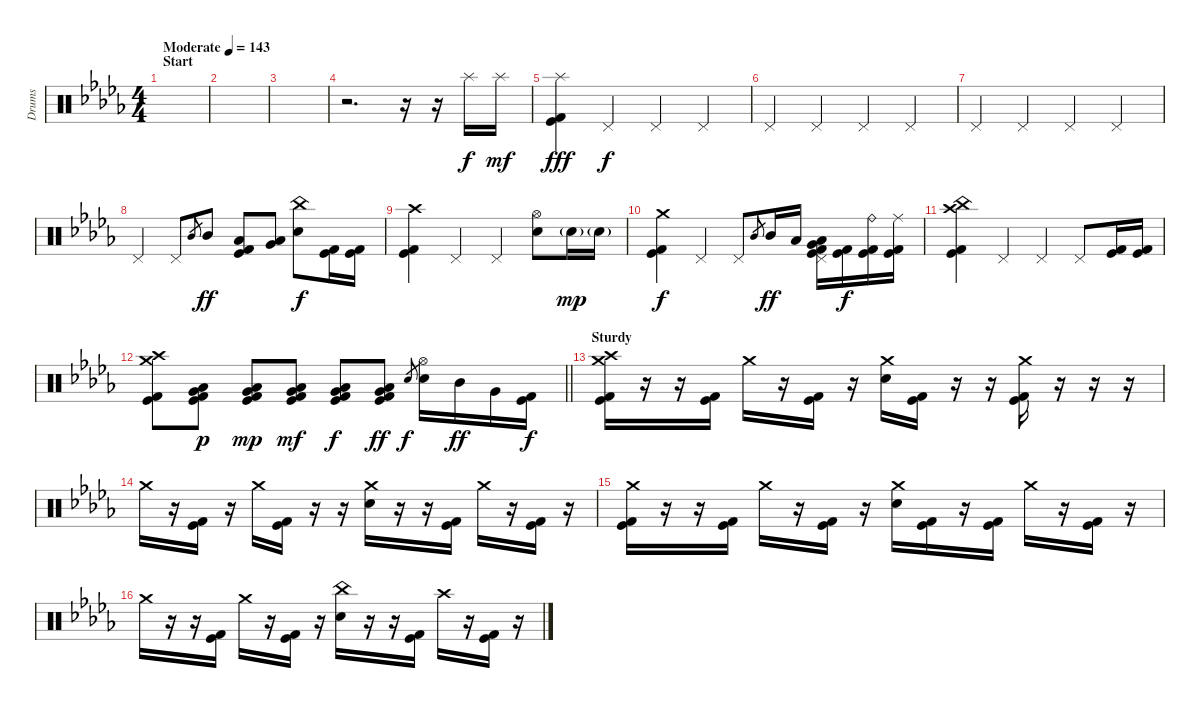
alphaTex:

\track ("Drums" "Drums") {instrument percussion}
\staff {score}
\articulation defaults
\ts (4 4)
\section ("" "Start")
\tempo (143 "Moderate")
\clef neutral
\ks db
|
|
|
r.2{d} r.16 r.16 "Splash (hit)".16 "Splash (hit)".16{dy mf} |
("Splash (hit)" "Kick (hit)" "Kick (hit) 2").4{dy fff} "Pedal Hi-Hat (hit)".4{dy f} "Pedal Hi-Hat (hit)".4 "Pedal Hi-Hat (hit)".4 |
"Pedal Hi-Hat (hit)".4 "Pedal Hi-Hat (hit)".4 "Pedal Hi-Hat (hit)".4 "Pedal Hi-Hat (hit)".4 |
"Pedal Hi-Hat (hit)".4 "Pedal Hi-Hat (hit)".4 "Pedal Hi-Hat (hit)".4 "Pedal Hi-Hat (hit)".4 |
"Pedal Hi-Hat (hit)".4 "Pedal Hi-Hat (hit)".8 "Mid Tom (hit)".8{gr} "Mid Tom (hit)".8{dy ff} ("Low Tom (hit)" "Kick (hit)" "Kick (hit) 2").8 ("Low Floor Tom (hit)" "Very Low Tom (hit)").8 ("China (hit)" "Electric Snare (hit)").8{dy f} ("Kick (hit)" "Kick (hit) 2").16 ("Kick (hit)" "Kick (hit) 2").16 |
("Crash high (hit)" "Kick (hit)" "Kick (hit) 2").4 "Pedal Hi-Hat (hit)".4 "Pedal Hi-Hat (hit)".4 ("Hi-Hat (open)" "Electric Snare (hit)").8 "Electric Snare (hit)"{g}.16{dy mp} "Electric Snare (hit)"{g}.16 |
("Crash medium (hit)" "Kick (hit)" "Kick (hit) 2").4{dy f} "Pedal Hi-Hat (hit)".4 "Pedal Hi-Hat (hit)".8 "Mid Tom (hit)".8{gr} "Mid Tom (hit)".16{dy ff} "Low Tom (hit)".16 ("Pedal Hi-Hat (hit)" "Low Floor Tom (hit)" "Very Low Tom (hit)" "Kick (hit)" "Kick (hit) 2").16 ("Kick (hit)" "Kick (hit) 2").16{dy f} ("Ride (bell)" "Kick (hit)" "Kick (hit) 2").16 ("Ride (middle)" "Kick (hit)" "Kick (hit) 2").16 |
("Crash high (hit)" "China (hit)" "Kick (hit)" "Kick (hit) 2").4 "Pedal Hi-Hat (hit)".4 "Pedal Hi-Hat (hit)".4 "Pedal Hi-Hat (hit)".8 ("Kick (hit)" "Kick (hit) 2").16 ("Kick (hit)" "Kick (hit) 2").16 |
\barLineRight lightlight
("Crash medium (hit)" "Crash high (hit)" "Kick (hit)" "Kick (hit) 2").8 ("Low Floor Tom (hit)" "Very Low Tom (hit)" "Kick (hit)" "Kick (hit) 2").8{dy p} ("Low Floor Tom (hit)" "Very Low Tom (hit)" "Kick (hit)" "Kick (hit) 2").8{dy mp} ("Low Floor Tom (hit)" "Very Low Tom (hit)" "Kick (hit)" "Kick (hit) 2").8{dy mf} ("Low Floor Tom (hit)" "Very Low Tom (hit)" "Kick (hit)" "Kick (hit) 2").8{dy f} ("Low Floor Tom (hit)" "Very Low Tom (hit)" "Kick (hit)" "Kick (hit) 2").8{dy ff} "Electric Snare (hit)".8{gr dy f} ("Hi-Hat (open)" "Electric Snare (hit)").16 "Mid Tom (hit)".16{dy ff} "Very Low Tom (hit)".16 ("Kick (hit)" "Kick (hit) 2").16{dy f} |
\section ("" "Sturdy")
("Crash medium (hit)" "Crash high (hit)" "Kick (hit)" "Kick (hit) 2").16 r.16 r.16 ("Kick (hit)" "Kick (hit) 2").16 "Crash medium (hit)".16 r.16 ("Kick (hit)" "Kick (hit) 2").16 r.16 ("Crash medium (hit)" "Electric Snare (hit)").16 ("Kick (hit)" "Kick (hit) 2").16 r.16 r.16 ("Crash medium (hit)" "Kick (hit)" "Kick (hit) 2").16 r.16 r.16 r.16 |
"Crash medium (hit)".16 r.16 ("Kick (hit)" "Kick (hit) 2").16 r.16 "Crash medium (hit)".16 ("Kick (hit)" "Kick (hit) 2").16 r.16 r.16 ("Crash medium (hit)" "Electric Snare (hit)").16 r.16 r.16 ("Kick (hit)" "Kick (hit) 2").16 "Crash medium (hit)".16 r.16 ("Kick (hit)" "Kick (hit) 2").16 r.16 |
("Crash medium (hit)" "Kick (hit)" "Kick (hit) 2").16 r.16 r.16 ("Kick (hit)" "Kick (hit) 2").16 "Crash medium (hit)".16 r.16 ("Kick (hit)" "Kick (hit) 2").16 r.16 ("Crash medium (hit)" "Electric Snare (hit)").16 ("Kick (hit)" "Kick (hit) 2").16 r.16 ("Kick (hit)" "Kick (hit) 2").16 "Crash medium (hit)".16 r.16 ("Kick (hit)" "Kick (hit) 2").16 r.16 |
"Crash medium (hit)".16 r.16 r.16 ("Kick (hit)" "Kick (hit) 2").16 "Crash medium (hit)".16 r.16 ("Kick (hit)" "Kick (hit) 2").16 r.16 ("China (hit)" "Electric Snare (hit)").16 r.16 r.16 ("Kick (hit)" "Kick (hit) 2").16 "Crash high (hit)".16 r.16 ("Kick (hit)" "Kick (hit) 2").16 r.16
